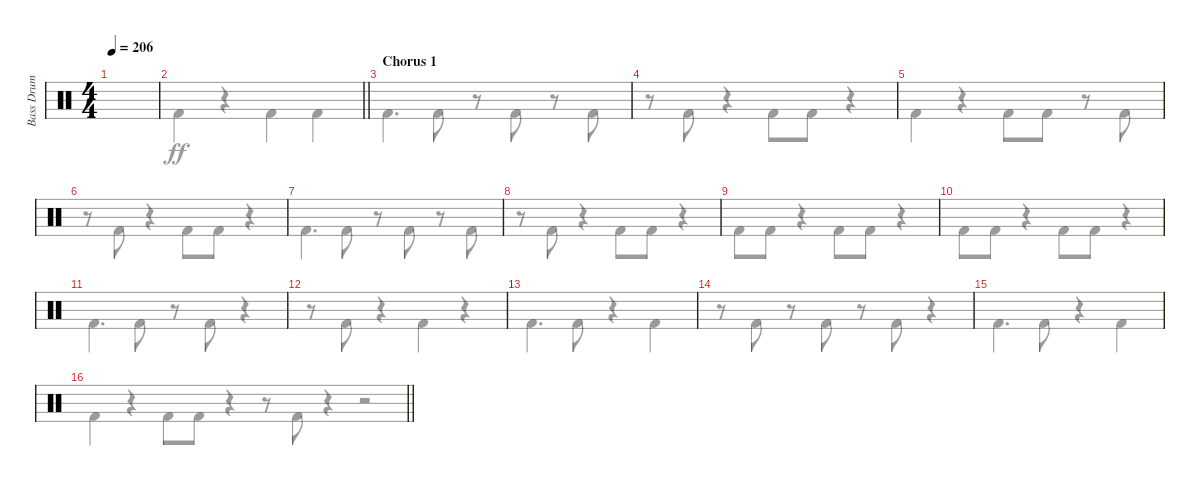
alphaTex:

\track ("Bass Drum" "Bass Drum") {instrument percussion}
\staff {score}
\articulation defaults
\voice
\ts (4 4)
\tempo 206
\clef neutral
\ks c
|
\barLineRight lightlight
|
\section ("" "Chorus 1")
|
|
|
|
|
|
|
|
|
|
|
|
|
\barLineRight lightlight
\voice
\clef neutral
\ks c "Kick (hit) 2".4{dy ff}
r.4 "Kick (hit) 2".8 "Kick (hit) 2".8 r.4 |
\barLineRight lightlight "Kick (hit) 2".4
r.4 "Kick (hit) 2".4 "Kick (hit) 2".4 |
"Kick (hit) 2".4{d} "Kick (hit) 2".8 r.8 "Kick (hit) 2".8 r.8 "Kick (hit) 2".8 |
r.8 "Kick (hit) 2".8 r.4 "Kick (hit) 2".8 "Kick (hit) 2".8 r.4 |
"Kick (hit) 2".4 r.4 "Kick (hit) 2".8 "Kick (hit) 2".8 r.8 "Kick (hit) 2".8 |
r.8 "Kick (hit) 2".8 r.4 "Kick (hit) 2".8 "Kick (hit) 2".8 r.4 |
"Kick (hit) 2".4{d} "Kick (hit) 2".8 r.8 "Kick (hit) 2".8 r.8 "Kick (hit) 2".8 |
r.8 "Kick (hit) 2".8 r.4 "Kick (hit) 2".8 "Kick (hit) 2".8 r.4 |
"Kick (hit) 2".8 "Kick (hit) 2".8 r.4 "Kick (hit) 2".8 "Kick (hit) 2".8 r.4 |
"Kick (hit) 2".8 "Kick (hit) 2".8 r.4 "Kick (hit) 2".8 "Kick (hit) 2".8 r.4 |
"Kick (hit) 2".4{d} "Kick (hit) 2".8 r.8 "Kick (hit) 2".8 r.4 |
r.8 "Kick (hit) 2".8 r.4 "Kick (hit) 2".4 r.4 |
"Kick (hit) 2".4{d} "Kick (hit) 2".8 r.4 "Kick (hit) 2".4 |
r.8 "Kick (hit) 2".8 r.8 "Kick (hit) 2".8 r.8 "Kick (hit) 2".8 r.4 |
"Kick (hit) 2".4{d} "Kick (hit) 2".8 r.4 "Kick (hit) 2".4 |
\barLineRight lightlight
r.8 "Kick (hit) 2".8 r.4 r.2
